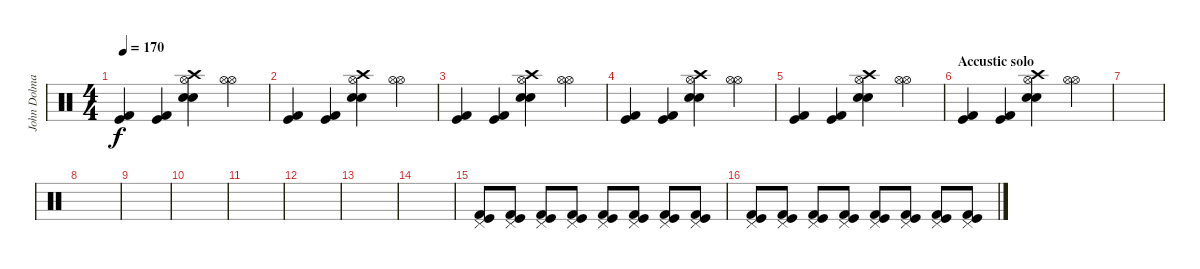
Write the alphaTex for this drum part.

\track ("John Dolmayan" "John Dolma") {instrument percussion}
\staff {score}
\articulation defaults
\ts (4 4)
\tempo 170
\clef neutral
\ks c
("Kick (hit)" "Kick (hit) 2").4{dy f} ("Kick (hit)" "Kick (hit) 2").4 ("Hi-Hat (open)" "Snare (hit) 2" "Crash high (hit)" "Electric Snare (hit)").4 ("Hi-Hat (open)" "Hi-Hat (open)").4 |
("Kick (hit)" "Kick (hit) 2").4 ("Kick (hit)" "Kick (hit) 2").4 ("Hi-Hat (open)" "Snare (hit) 2" "Crash high (hit)" "Electric Snare (hit)").4 ("Hi-Hat (open)" "Hi-Hat (open)").4 |
("Kick (hit)" "Kick (hit) 2").4 ("Kick (hit)" "Kick (hit) 2").4 ("Hi-Hat (open)" "Snare (hit) 2" "Crash high (hit)" "Electric Snare (hit)").4 ("Hi-Hat (open)" "Hi-Hat (open)").4 |
("Kick (hit)" "Kick (hit) 2").4 ("Kick (hit)" "Kick (hit) 2").4 ("Hi-Hat (open)" "Snare (hit) 2" "Crash high (hit)" "Electric Snare (hit)").4 ("Hi-Hat (open)" "Hi-Hat (open)").4 |
("Kick (hit)" "Kick (hit) 2").4 ("Kick (hit)" "Kick (hit) 2").4 ("Hi-Hat (open)" "Snare (hit) 2" "Crash high (hit)" "Electric Snare (hit)").4 ("Hi-Hat (open)" "Hi-Hat (open)").4 |
\section ("" "Accustic solo")
("Kick (hit)" "Kick (hit) 2").4 ("Kick (hit)" "Kick (hit) 2").4 ("Hi-Hat (open)" "Snare (hit) 2" "Crash high (hit)" "Electric Snare (hit)").4 ("Hi-Hat (open)" "Hi-Hat (open)").4 |
|
|
|
|
|
|
|
|
("Pedal Hi-Hat (hit)" "Kick (hit)" "Kick (hit) 2").8 ("Pedal Hi-Hat (hit)" "Kick (hit)" "Kick (hit) 2").8 ("Pedal Hi-Hat (hit)" "Kick (hit)" "Kick (hit) 2").8 ("Pedal Hi-Hat (hit)" "Kick (hit)" "Kick (hit) 2").8 ("Pedal Hi-Hat (hit)" "Kick (hit)" "Kick (hit) 2").8 ("Pedal Hi-Hat (hit)" "Kick (hit)" "Kick (hit) 2").8 ("Pedal Hi-Hat (hit)" "Kick (hit)" "Kick (hit) 2").8 ("Pedal Hi-Hat (hit)" "Kick (hit)" "Kick (hit) 2").8 |
("Pedal Hi-Hat (hit)" "Kick (hit)" "Kick (hit) 2").8 ("Pedal Hi-Hat (hit)" "Kick (hit)" "Kick (hit) 2").8 ("Pedal Hi-Hat (hit)" "Kick (hit)" "Kick (hit) 2").8 ("Pedal Hi-Hat (hit)" "Kick (hit)" "Kick (hit) 2").8 ("Pedal Hi-Hat (hit)" "Kick (hit)" "Kick (hit) 2").8 ("Pedal Hi-Hat (hit)" "Kick (hit)" "Kick (hit) 2").8 ("Pedal Hi-Hat (hit)" "Kick (hit)" "Kick (hit) 2").8 ("Pedal Hi-Hat (hit)" "Kick (hit)" "Kick (hit) 2").8
